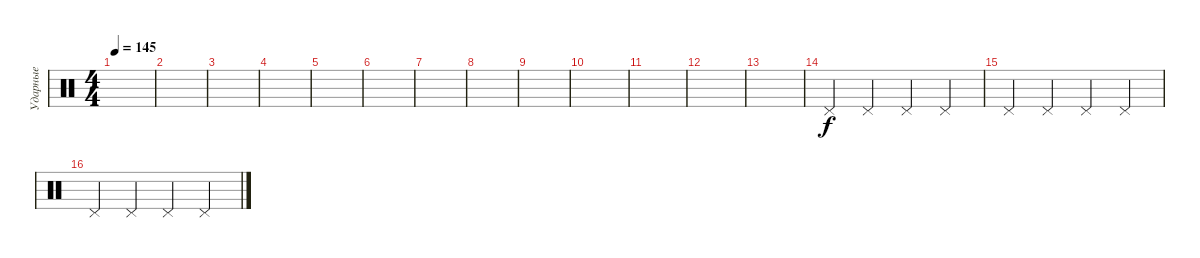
\track ("Ударные" "Ударные") {instrument percussion}
\staff {score}
\articulation defaults
\ts (4 4)
\tempo 145
\clef neutral
\ks c
|
|
|
|
|
|
|
|
|
|
|
|
|
"Pedal Hi-Hat (hit)".4 "Pedal Hi-Hat (hit)".4 "Pedal Hi-Hat (hit)".4 "Pedal Hi-Hat (hit)".4 |
"Pedal Hi-Hat (hit)".4 "Pedal Hi-Hat (hit)".4 "Pedal Hi-Hat (hit)".4 "Pedal Hi-Hat (hit)".4 |
"Pedal Hi-Hat (hit)".4 "Pedal Hi-Hat (hit)".4 "Pedal Hi-Hat (hit)".4 "Pedal Hi-Hat (hit)".4
